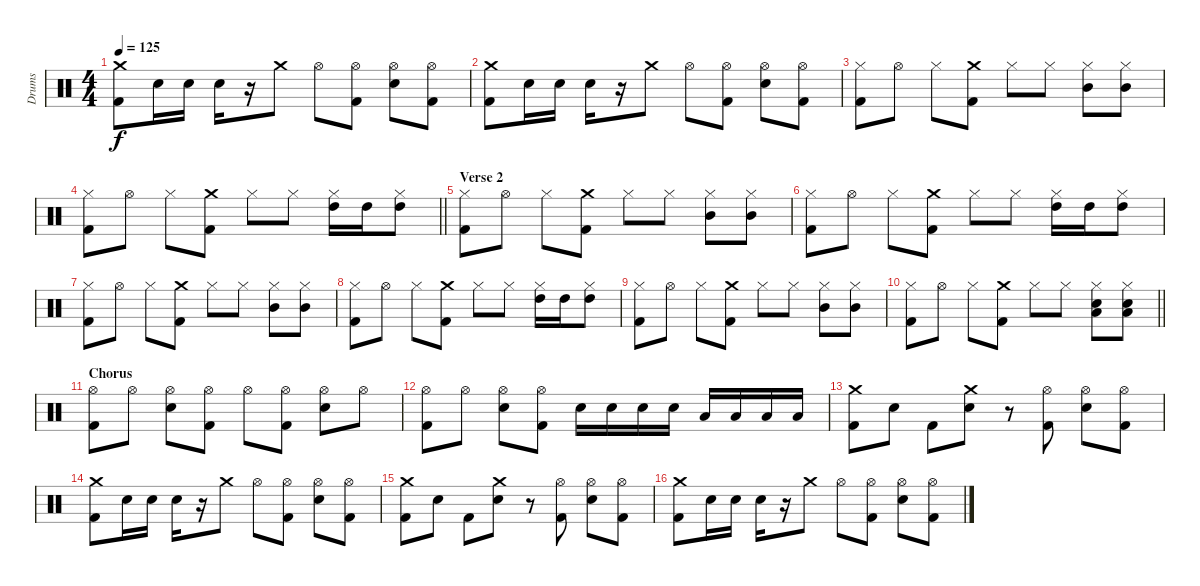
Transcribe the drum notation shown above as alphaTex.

\track ("Drums" "Drums") {instrument percussion}
\staff {score}
\articulation defaults
\ts (4 4)
\tempo 125
\clef neutral
\ks c
("Crash medium (hit)" "Kick (hit) 2").8{dy f} "Electric Snare (hit)".16 "Electric Snare (hit)".16 "Electric Snare (hit)".16 r.16 "Crash medium (hit)".8 "Hi-Hat (open)".8 ("Hi-Hat (open)" "Kick (hit) 2").8 ("Hi-Hat (open)" "Electric Snare (hit)").8 ("Hi-Hat (open)" "Kick (hit) 2").8 |
("Crash medium (hit)" "Kick (hit) 2").8 "Electric Snare (hit)".16 "Electric Snare (hit)".16 "Electric Snare (hit)".16 r.16 "Crash medium (hit)".8 "Hi-Hat (open)".8 ("Hi-Hat (open)" "Kick (hit) 2").8 ("Hi-Hat (open)" "Electric Snare (hit)").8 ("Hi-Hat (open)" "Kick (hit) 2").8 |
("Hi-Hat (closed)" "Kick (hit) 2").8 "Hi-Hat (open)".8 "Hi-Hat (closed)".8 ("Crash medium (hit)" "Kick (hit) 2").8 "Hi-Hat (closed)".8 "Hi-Hat (closed)".8 ("Hi-Hat (closed)" "Mid Tom (hit)").8 ("Hi-Hat (closed)" "Mid Tom (hit)").8 |
\barLineRight lightlight
("Hi-Hat (closed)" "Kick (hit) 2").8 "Hi-Hat (open)".8 "Hi-Hat (closed)".8 ("Crash medium (hit)" "Kick (hit) 2").8 "Hi-Hat (closed)".8 "Hi-Hat (closed)".8 ("Hi-Hat (closed)" "High Tom (hit)").16 "High Tom (hit)".16 ("Hi-Hat (closed)" "High Tom (hit)").8 |
\section ("" "Verse 2")
("Hi-Hat (closed)" "Kick (hit) 2").8 "Hi-Hat (open)".8 "Hi-Hat (closed)".8 ("Crash medium (hit)" "Kick (hit) 2").8 "Hi-Hat (closed)".8 "Hi-Hat (closed)".8 ("Hi-Hat (closed)" "Mid Tom (hit)").8 ("Hi-Hat (closed)" "Mid Tom (hit)").8 |
("Hi-Hat (closed)" "Kick (hit) 2").8 "Hi-Hat (open)".8 "Hi-Hat (closed)".8 ("Crash medium (hit)" "Kick (hit) 2").8 "Hi-Hat (closed)".8 "Hi-Hat (closed)".8 ("Hi-Hat (closed)" "High Tom (hit)").16 "High Tom (hit)".16 ("Hi-Hat (closed)" "High Tom (hit)").8 |
("Hi-Hat (closed)" "Kick (hit) 2").8 "Hi-Hat (open)".8 "Hi-Hat (closed)".8 ("Crash medium (hit)" "Kick (hit) 2").8 "Hi-Hat (closed)".8 "Hi-Hat (closed)".8 ("Hi-Hat (closed)" "Mid Tom (hit)").8 ("Hi-Hat (closed)" "Mid Tom (hit)").8 |
("Hi-Hat (closed)" "Kick (hit) 2").8 "Hi-Hat (open)".8 "Hi-Hat (closed)".8 ("Crash medium (hit)" "Kick (hit) 2").8 "Hi-Hat (closed)".8 "Hi-Hat (closed)".8 ("Hi-Hat (closed)" "High Tom (hit)").16 "High Tom (hit)".16 ("Hi-Hat (closed)" "High Tom (hit)").8 |
("Hi-Hat (closed)" "Kick (hit) 2").8 "Hi-Hat (open)".8 "Hi-Hat (closed)".8 ("Crash medium (hit)" "Kick (hit) 2").8 "Hi-Hat (closed)".8 "Hi-Hat (closed)".8 ("Hi-Hat (closed)" "Mid Tom (hit)").8 ("Hi-Hat (closed)" "Mid Tom (hit)").8 |
\barLineRight lightlight
("Hi-Hat (closed)" "Kick (hit) 2").8 "Hi-Hat (open)".8 "Hi-Hat (closed)".8 ("Crash medium (hit)" "Kick (hit) 2").8 "Hi-Hat (closed)".8 "Hi-Hat (closed)".8 ("Hi-Hat (closed)" "Electric Snare (hit)" "Low Tom (hit)").8 ("Hi-Hat (closed)" "Electric Snare (hit)" "Low Tom (hit)").8 |
\section ("" "Chorus")
("Hi-Hat (open)" "Kick (hit) 2").8 "Hi-Hat (open)".8 ("Hi-Hat (open)" "Electric Snare (hit)").8 ("Hi-Hat (open)" "Kick (hit) 2").8 "Hi-Hat (open)".8 ("Hi-Hat (open)" "Kick (hit) 2").8 ("Hi-Hat (open)" "Electric Snare (hit)").8 "Hi-Hat (open)".8 |
("Hi-Hat (open)" "Kick (hit) 2").8 "Hi-Hat (open)".8 ("Hi-Hat (open)" "Electric Snare (hit)").8 ("Hi-Hat (open)" "Kick (hit) 2").8 "Electric Snare (hit)".16 "Electric Snare (hit)".16 "Electric Snare (hit)".16 "Electric Snare (hit)".16 "Low Tom (hit)".16 "Low Tom (hit)".16 "Low Tom (hit)".16 "Low Tom (hit)".16 |
("Crash medium (hit)" "Kick (hit) 2").8 "Electric Snare (hit)".8 "Kick (hit) 2".8 ("Crash medium (hit)" "Electric Snare (hit)").8 r.8 ("Hi-Hat (open)" "Kick (hit) 2").8 ("Hi-Hat (open)" "Electric Snare (hit)").8 ("Hi-Hat (open)" "Kick (hit) 2").8 |
("Crash medium (hit)" "Kick (hit) 2").8 "Electric Snare (hit)".16 "Electric Snare (hit)".16 "Electric Snare (hit)".16 r.16 "Crash medium (hit)".8 "Hi-Hat (open)".8 ("Hi-Hat (open)" "Kick (hit) 2").8 ("Hi-Hat (open)" "Electric Snare (hit)").8 ("Hi-Hat (open)" "Kick (hit) 2").8 |
("Crash medium (hit)" "Kick (hit) 2").8 "Electric Snare (hit)".8 "Kick (hit) 2".8 ("Crash medium (hit)" "Electric Snare (hit)").8 r.8 ("Hi-Hat (open)" "Kick (hit) 2").8 ("Hi-Hat (open)" "Electric Snare (hit)").8 ("Hi-Hat (open)" "Kick (hit) 2").8 |
("Crash medium (hit)" "Kick (hit) 2").8 "Electric Snare (hit)".16 "Electric Snare (hit)".16 "Electric Snare (hit)".16 r.16 "Crash medium (hit)".8 "Hi-Hat (open)".8 ("Hi-Hat (open)" "Kick (hit) 2").8 ("Hi-Hat (open)" "Electric Snare (hit)").8 ("Hi-Hat (open)" "Kick (hit) 2").8
